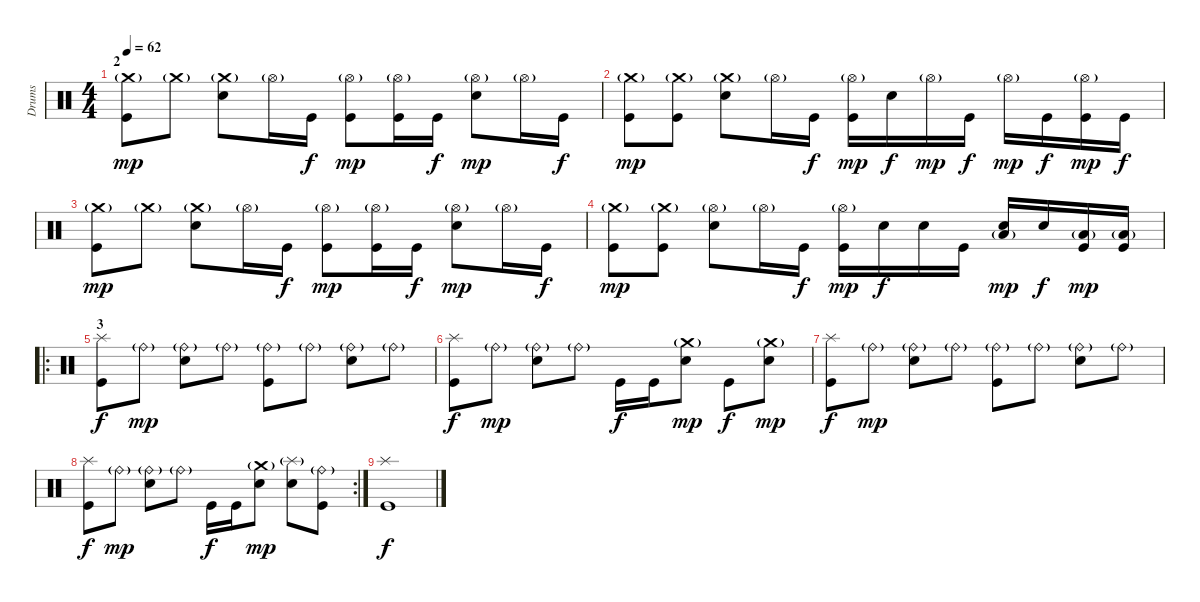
\track ("Drums" "Drums") {instrument percussion}
\staff {score}
\articulation defaults
\ts (4 4)
\section ("" "2")
\tempo 62
\clef neutral
\ks c
("Kick (hit)" "Crash medium (hit)"{g}).8{dy mp} "Crash medium (hit)"{g}.8 ("Electric Snare (hit)" "Crash medium (hit)"{g}).8 "Hi-Hat (open)"{g}.16 "Kick (hit)".16{dy f} ("Kick (hit)" "Hi-Hat (open)"{g}).8{dy mp} ("Kick (hit)" "Hi-Hat (open)"{g}).16 "Kick (hit)".16{dy f} ("Electric Snare (hit)" "Hi-Hat (open)"{g}).8{dy mp} "Hi-Hat (open)"{g}.16 "Kick (hit)".16{dy f} |
("Kick (hit)" "Crash medium (hit)"{g}).8{dy mp} ("Kick (hit)" "Crash medium (hit)"{g}).8 ("Electric Snare (hit)" "Crash medium (hit)"{g}).8 "Hi-Hat (open)"{g}.16 "Kick (hit)".16{dy f} ("Kick (hit)" "Hi-Hat (open)"{g}).16{dy mp} "Electric Snare (hit)".16{dy f} "Hi-Hat (open)"{g}.16{dy mp} "Kick (hit)".16{dy f} "Hi-Hat (open)"{g}.16{dy mp} "Kick (hit)".16{dy f} ("Kick (hit)" "Hi-Hat (open)"{g}).16{dy mp} "Kick (hit)".16{dy f} |
("Kick (hit)" "Crash medium (hit)"{g}).8{dy mp} "Crash medium (hit)"{g}.8 ("Electric Snare (hit)" "Crash medium (hit)"{g}).8 "Hi-Hat (open)"{g}.16 "Kick (hit)".16{dy f} ("Kick (hit)" "Hi-Hat (open)"{g}).8{dy mp} ("Kick (hit)" "Hi-Hat (open)"{g}).16 "Kick (hit)".16{dy f} ("Electric Snare (hit)" "Hi-Hat (open)"{g}).8{dy mp} "Hi-Hat (open)"{g}.16 "Kick (hit)".16{dy f} |
("Kick (hit)" "Crash medium (hit)"{g}).8{dy mp} ("Kick (hit)" "Crash medium (hit)"{g}).8 ("Electric Snare (hit)" "Hi-Hat (open)"{g}).8 "Hi-Hat (open)"{g}.16 "Kick (hit)".16{dy f} ("Kick (hit)" "Hi-Hat (open)"{g}).16{dy mp} "Electric Snare (hit)".16{dy f} "Electric Snare (hit)".16 "Kick (hit)".16 ("Electric Snare (hit)" "Low Floor Tom (hit)"{g}).16{dy mp} "Electric Snare (hit)".16{dy f} ("Kick (hit)" "Low Floor Tom (hit)"{g}).16{dy mp} ("Kick (hit)" "Low Floor Tom (hit)"{g}).16 |
\ro
\section ("" "3")
("Kick (hit)" "Splash (hit)").8{dy f} "Ride (bell)"{g}.8{dy mp} ("Electric Snare (hit)" "Ride (bell)"{g}).8 "Ride (bell)"{g}.8 ("Kick (hit)" "Ride (bell)"{g}).8 "Ride (bell)"{g}.8 ("Electric Snare (hit)" "Ride (bell)"{g}).8 "Ride (bell)"{g}.8 |
("Kick (hit)" "Splash (hit)").8{dy f} "Ride (bell)"{g}.8{dy mp} ("Electric Snare (hit)" "Ride (bell)"{g}).8 "Ride (bell)"{g}.8 "Kick (hit)".16{dy f} "Kick (hit)".16 ("Electric Snare (hit)" "Crash medium (hit)"{g}).8{dy mp} "Kick (hit)".8{dy f} ("Electric Snare (hit)" "Crash medium (hit)"{g}).8{dy mp} |
("Kick (hit)" "Splash (hit)").8{dy f} "Ride (bell)"{g}.8{dy mp} ("Electric Snare (hit)" "Ride (bell)"{g}).8 "Ride (bell)"{g}.8 ("Kick (hit)" "Ride (bell)"{g}).8 "Ride (bell)"{g}.8 ("Electric Snare (hit)" "Ride (bell)"{g}).8 "Ride (bell)"{g}.8 |
\rc 2
("Kick (hit)" "Splash (hit)").8{dy f} "Ride (bell)"{g}.8{dy mp} ("Electric Snare (hit)" "Ride (bell)"{g}).8 "Ride (bell)"{g}.8 "Kick (hit)".16{dy f} "Kick (hit)".16 ("Electric Snare (hit)" "Crash medium (hit)"{g}).8{dy mp} ("Electric Snare (hit)" "Splash (hit)"{g}).8 ("Kick (hit)" "Ride (bell)"{g}).8 |
("Kick (hit)" "Splash (hit)").1{dy f}
